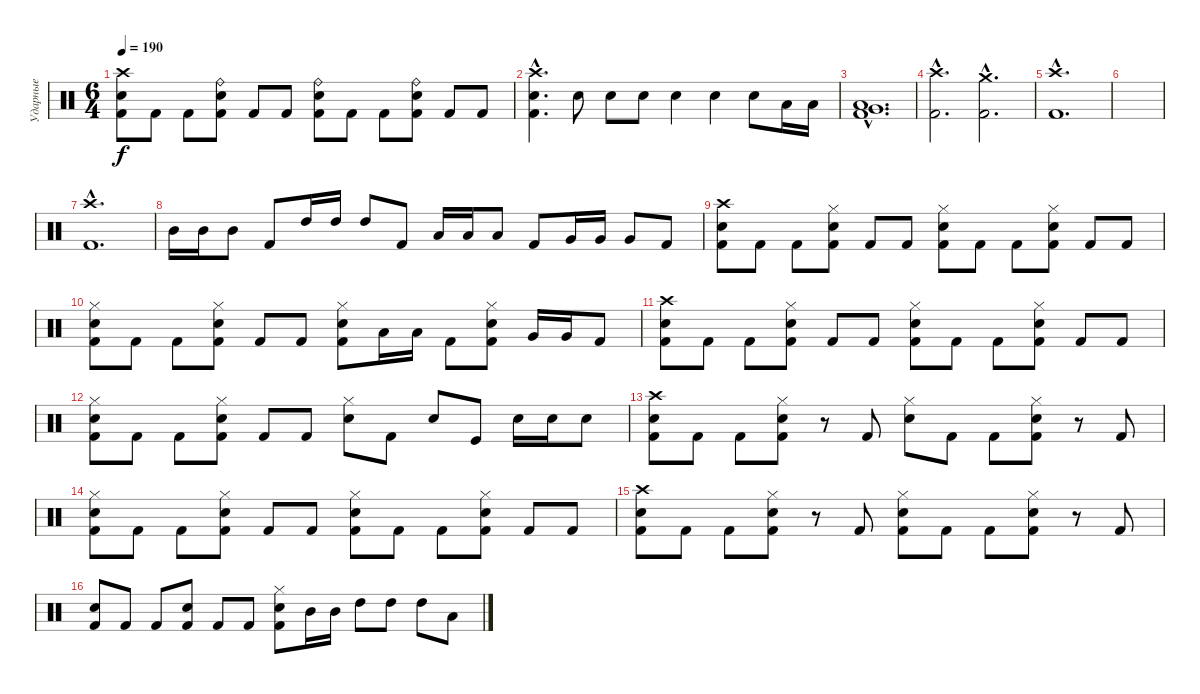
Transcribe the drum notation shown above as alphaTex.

\track ("Ударные" "Ударные") {instrument percussion}
\staff {score}
\articulation defaults
\ts (6 4)
\tempo 190
\clef neutral
\ks c
("Crash high (hit)" "Electric Snare (hit)" "Kick (hit) 2").8{dy f} "Kick (hit) 2".8 "Kick (hit) 2".8 ("Ride (bell)" "Electric Snare (hit)" "Kick (hit) 2").8 "Kick (hit) 2".8 "Kick (hit) 2".8 ("Ride (bell)" "Electric Snare (hit)" "Kick (hit) 2").8 "Kick (hit) 2".8 "Kick (hit) 2".8 ("Ride (bell)" "Electric Snare (hit)" "Kick (hit) 2").8 "Kick (hit) 2".8 "Kick (hit) 2".8 |
("Crash high (hit)"{hac} "Electric Snare (hit)"{hac} "Kick (hit) 2"{hac}).4{d} "Electric Snare (hit)".8 "Electric Snare (hit)".8 "Electric Snare (hit)".8 "Electric Snare (hit)".4 "Electric Snare (hit)".4 "Electric Snare (hit)".8 "Low Tom (hit)".16 "Low Tom (hit)".16 |
("Low Tom (hit)"{hac} "Very Low Tom (hit)"{hac} "Kick (hit) 2"{hac}).1{d} |
("Crash high (hit)"{hac} "Kick (hit) 2"{hac}).2{d} ("Crash medium (hit)"{hac} "Kick (hit) 2"{hac}).2{d} |
("Crash high (hit)"{hac} "Kick (hit) 2"{hac}).1{d} |
|
("Crash high (hit)"{hac} "Kick (hit) 2"{hac}).1{d} |
"Mid Tom (hit)".16 "Mid Tom (hit)".16 "Mid Tom (hit)".8 "Kick (hit) 2".8 "High Tom (hit)".16 "High Tom (hit)".16 "High Tom (hit)".8 "Kick (hit) 2".8 "Low Tom (hit)".16 "Low Tom (hit)".16 "Low Tom (hit)".8 "Kick (hit) 2".8 "Very Low Tom (hit)".16 "Very Low Tom (hit)".16 "Very Low Tom (hit)".8 "Kick (hit) 2".8 |
("Crash high (hit)" "Electric Snare (hit)" "Kick (hit) 2").8 "Kick (hit) 2".8 "Kick (hit) 2".8 ("Hi-Hat (closed)" "Electric Snare (hit)" "Kick (hit) 2").8 "Kick (hit) 2".8 "Kick (hit) 2".8 ("Hi-Hat (closed)" "Electric Snare (hit)" "Kick (hit) 2").8 "Kick (hit) 2".8 "Kick (hit) 2".8 ("Hi-Hat (closed)" "Electric Snare (hit)" "Kick (hit) 2").8 "Kick (hit) 2".8 "Kick (hit) 2".8 |
("Hi-Hat (closed)" "Electric Snare (hit)" "Kick (hit) 2").8 "Kick (hit) 2".8 "Kick (hit) 2".8 ("Hi-Hat (closed)" "Electric Snare (hit)" "Kick (hit) 2").8 "Kick (hit) 2".8 "Kick (hit) 2".8 ("Hi-Hat (closed)" "Electric Snare (hit)" "Kick (hit) 2").8 "Low Tom (hit)".16 "Low Tom (hit)".16 "Kick (hit) 2".8 ("Hi-Hat (closed)" "Electric Snare (hit)" "Kick (hit) 2").8 "Very Low Tom (hit)".16 "Very Low Tom (hit)".16 "Kick (hit) 2".8 |
("Crash high (hit)" "Electric Snare (hit)" "Kick (hit) 2").8 "Kick (hit) 2".8 "Kick (hit) 2".8 ("Hi-Hat (closed)" "Electric Snare (hit)" "Kick (hit) 2").8 "Kick (hit) 2".8 "Kick (hit) 2".8 ("Hi-Hat (closed)" "Electric Snare (hit)" "Kick (hit) 2").8 "Kick (hit) 2".8 "Kick (hit) 2".8 ("Hi-Hat (closed)" "Electric Snare (hit)" "Kick (hit) 2").8 "Kick (hit) 2".8 "Kick (hit) 2".8 |
("Hi-Hat (closed)" "Electric Snare (hit)" "Kick (hit) 2").8 "Kick (hit) 2".8 "Kick (hit) 2".8 ("Hi-Hat (closed)" "Electric Snare (hit)" "Kick (hit) 2").8 "Kick (hit) 2".8 "Kick (hit) 2".8 ("Hi-Hat (closed)" "Electric Snare (hit)").8 "Kick (hit) 2".8 "Electric Snare (hit)".8 "Kick (hit)".8 "Electric Snare (hit)".16 "Electric Snare (hit)".16 "Electric Snare (hit)".8 |
("Crash high (hit)" "Electric Snare (hit)" "Kick (hit) 2").8 "Kick (hit) 2".8 "Kick (hit) 2".8 ("Hi-Hat (closed)" "Electric Snare (hit)" "Kick (hit) 2").8 r.8 "Kick (hit) 2".8 ("Hi-Hat (closed)" "Electric Snare (hit)").8 "Kick (hit) 2".8 "Kick (hit) 2".8 ("Hi-Hat (closed)" "Electric Snare (hit)" "Kick (hit) 2").8 r.8 "Kick (hit) 2".8 |
("Hi-Hat (closed)" "Electric Snare (hit)" "Kick (hit) 2").8 "Kick (hit) 2".8 "Kick (hit) 2".8 ("Hi-Hat (closed)" "Electric Snare (hit)" "Kick (hit) 2").8 "Kick (hit) 2".8 "Kick (hit) 2".8 ("Hi-Hat (closed)" "Electric Snare (hit)" "Kick (hit) 2").8 "Kick (hit) 2".8 "Kick (hit) 2".8 ("Hi-Hat (closed)" "Electric Snare (hit)" "Kick (hit) 2").8 "Kick (hit) 2".8 "Kick (hit) 2".8 |
("Crash high (hit)" "Electric Snare (hit)" "Kick (hit) 2").8 "Kick (hit) 2".8 "Kick (hit) 2".8 ("Hi-Hat (closed)" "Electric Snare (hit)" "Kick (hit) 2").8 r.8 "Kick (hit) 2".8 ("Hi-Hat (closed)" "Electric Snare (hit)" "Kick (hit) 2").8 "Kick (hit) 2".8 "Kick (hit) 2".8 ("Hi-Hat (closed)" "Electric Snare (hit)" "Kick (hit) 2").8 r.8 "Kick (hit) 2".8 |
("Electric Snare (hit)" "Kick (hit) 2").8 "Kick (hit) 2".8 "Kick (hit) 2".8 ("Electric Snare (hit)" "Kick (hit) 2").8 "Kick (hit) 2".8 "Kick (hit) 2".8 ("Hi-Hat (closed)" "Electric Snare (hit)" "Kick (hit) 2").8 "Mid Tom (hit)".16 "Mid Tom (hit)".16 "High Tom (hit)".8 "High Tom (hit)".8 "High Tom (hit)".8 "Low Tom (hit)".8
